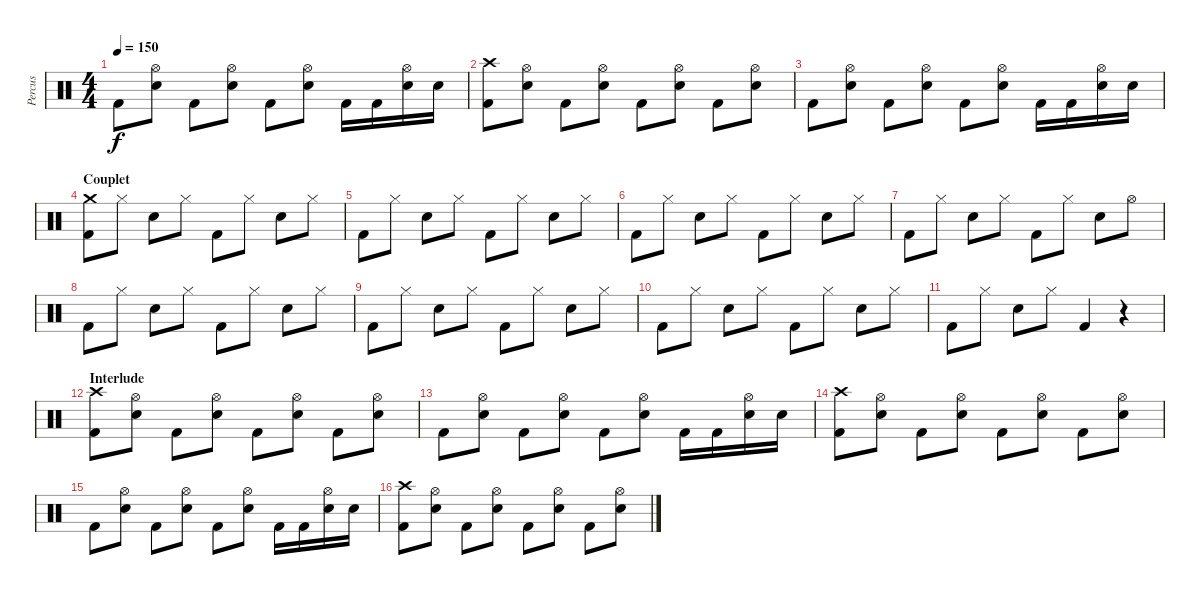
\track ("Percus" "Percus") {instrument percussion}
\staff {score}
\articulation defaults
\ts (4 4)
\tempo 150
\clef neutral
\ks c "Kick (hit) 2".8{dy f}
("Hi-Hat (open)" "Snare (hit) 2").8 "Kick (hit) 2".8 ("Hi-Hat (open)" "Snare (hit) 2").8 "Kick (hit) 2".8 ("Hi-Hat (open)" "Snare (hit) 2").8 "Kick (hit) 2".16 "Kick (hit) 2".16 ("Hi-Hat (open)" "Snare (hit) 2").16 "Snare (hit) 2".16 |
("Crash high (hit)" "Kick (hit) 2").8 ("Hi-Hat (open)" "Snare (hit) 2").8 "Kick (hit) 2".8 ("Hi-Hat (open)" "Snare (hit) 2").8 "Kick (hit) 2".8 ("Hi-Hat (open)" "Snare (hit) 2").8 "Kick (hit) 2".8 ("Hi-Hat (open)" "Snare (hit) 2").8 |
"Kick (hit) 2".8 ("Hi-Hat (open)" "Snare (hit) 2").8 "Kick (hit) 2".8 ("Hi-Hat (open)" "Snare (hit) 2").8 "Kick (hit) 2".8 ("Hi-Hat (open)" "Snare (hit) 2").8 "Kick (hit) 2".16 "Kick (hit) 2".16 ("Hi-Hat (open)" "Snare (hit) 2").16 "Snare (hit) 2".16 |
\section ("" "Couplet")
("Crash medium (hit)" "Kick (hit) 2").8 "Hi-Hat (closed)".8 "Snare (hit) 2".8 "Hi-Hat (closed)".8 "Kick (hit) 2".8 "Hi-Hat (closed)".8 "Snare (hit) 2".8 "Hi-Hat (closed)".8 |
"Kick (hit) 2".8 "Hi-Hat (closed)".8 "Snare (hit) 2".8 "Hi-Hat (closed)".8 "Kick (hit) 2".8 "Hi-Hat (closed)".8 "Snare (hit) 2".8 "Hi-Hat (closed)".8 |
"Kick (hit) 2".8 "Hi-Hat (closed)".8 "Snare (hit) 2".8 "Hi-Hat (closed)".8 "Kick (hit) 2".8 "Hi-Hat (closed)".8 "Snare (hit) 2".8 "Hi-Hat (closed)".8 |
"Kick (hit) 2".8 "Hi-Hat (closed)".8 "Snare (hit) 2".8 "Hi-Hat (closed)".8 "Kick (hit) 2".8 "Hi-Hat (closed)".8 "Snare (hit) 2".8 "Hi-Hat (open)".8 |
"Kick (hit) 2".8 "Hi-Hat (closed)".8 "Snare (hit) 2".8 "Hi-Hat (closed)".8 "Kick (hit) 2".8 "Hi-Hat (closed)".8 "Snare (hit) 2".8 "Hi-Hat (closed)".8 |
"Kick (hit) 2".8 "Hi-Hat (closed)".8 "Snare (hit) 2".8 "Hi-Hat (closed)".8 "Kick (hit) 2".8 "Hi-Hat (closed)".8 "Snare (hit) 2".8 "Hi-Hat (closed)".8 |
"Kick (hit) 2".8 "Hi-Hat (closed)".8 "Snare (hit) 2".8 "Hi-Hat (closed)".8 "Kick (hit) 2".8 "Hi-Hat (closed)".8 "Snare (hit) 2".8 "Hi-Hat (closed)".8 |
"Kick (hit) 2".8 "Hi-Hat (closed)".8 "Snare (hit) 2".8 "Hi-Hat (closed)".8 "Kick (hit) 2".4 r.4 |
\section ("" "Interlude")
("Crash high (hit)" "Kick (hit) 2").8 ("Hi-Hat (open)" "Snare (hit) 2").8 "Kick (hit) 2".8 ("Hi-Hat (open)" "Snare (hit) 2").8 "Kick (hit) 2".8 ("Hi-Hat (open)" "Snare (hit) 2").8 "Kick (hit) 2".8 ("Hi-Hat (open)" "Snare (hit) 2").8 |
"Kick (hit) 2".8 ("Hi-Hat (open)" "Snare (hit) 2").8 "Kick (hit) 2".8 ("Hi-Hat (open)" "Snare (hit) 2").8 "Kick (hit) 2".8 ("Hi-Hat (open)" "Snare (hit) 2").8 "Kick (hit) 2".16 "Kick (hit) 2".16 ("Hi-Hat (open)" "Snare (hit) 2").16 "Snare (hit) 2".16 |
("Crash high (hit)" "Kick (hit) 2").8 ("Hi-Hat (open)" "Snare (hit) 2").8 "Kick (hit) 2".8 ("Hi-Hat (open)" "Snare (hit) 2").8 "Kick (hit) 2".8 ("Hi-Hat (open)" "Snare (hit) 2").8 "Kick (hit) 2".8 ("Hi-Hat (open)" "Snare (hit) 2").8 |
"Kick (hit) 2".8 ("Hi-Hat (open)" "Snare (hit) 2").8 "Kick (hit) 2".8 ("Hi-Hat (open)" "Snare (hit) 2").8 "Kick (hit) 2".8 ("Hi-Hat (open)" "Snare (hit) 2").8 "Kick (hit) 2".16 "Kick (hit) 2".16 ("Hi-Hat (open)" "Snare (hit) 2").16 "Snare (hit) 2".16 |
("Crash high (hit)" "Kick (hit) 2").8 ("Hi-Hat (open)" "Snare (hit) 2").8 "Kick (hit) 2".8 ("Hi-Hat (open)" "Snare (hit) 2").8 "Kick (hit) 2".8 ("Hi-Hat (open)" "Snare (hit) 2").8 "Kick (hit) 2".8 ("Hi-Hat (open)" "Snare (hit) 2").8
